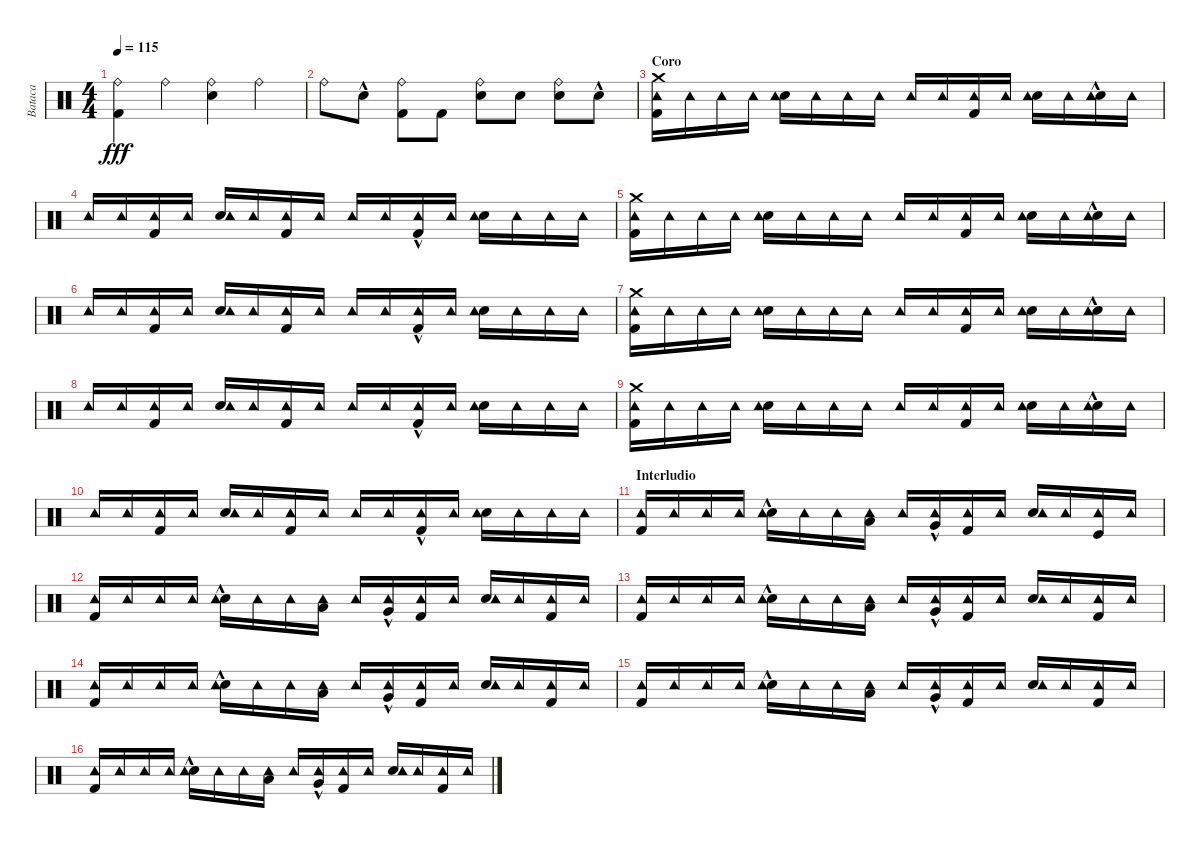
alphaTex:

\track ("Bataca" "Bataca") {instrument percussion}
\staff {score}
\articulation defaults
\ts (4 4)
\tempo 115
\clef neutral
\ks c
("Kick (hit) 2" "Ride (bell)").4{dy fff} "Ride (bell)".4 ("Snare (hit) 2" "Ride (bell)").4 "Ride (bell)".4 |
"Ride (bell)".8 "Snare (hit) 2"{hac}.8 ("Kick (hit) 2" "Ride (bell)").8 "Kick (hit) 2".8 ("Snare (hit) 2" "Ride (bell)").8 "Snare (hit) 2".8 ("Snare (hit) 2" "Ride (bell)").8 "Snare (hit) 2"{hac}.8 |
\section ("" "Coro")
("Kick (hit) 2" "Tambourine (hit)" "Crash medium (hit)").16 "Tambourine (hit)".16 "Tambourine (hit)".16 "Tambourine (hit)".16 ("Snare (hit) 2" "Tambourine (hit)").16 "Tambourine (hit)".16 "Tambourine (hit)".16 "Tambourine (hit)".16 "Tambourine (hit)".16 "Tambourine (hit)".16 ("Kick (hit) 2" "Tambourine (hit)").16 "Tambourine (hit)".16 ("Snare (hit) 2" "Tambourine (hit)").16 "Tambourine (hit)".16 ("Snare (hit) 2"{hac} "Tambourine (hit)").16 "Tambourine (hit)".16 |
"Tambourine (hit)".16 "Tambourine (hit)".16 ("Kick (hit) 2" "Tambourine (hit)").16 "Tambourine (hit)".16 ("Snare (hit) 2" "Tambourine (hit)").16 "Tambourine (hit)".16 ("Kick (hit) 2" "Tambourine (hit)").16 "Tambourine (hit)".16 "Tambourine (hit)".16 "Tambourine (hit)".16 ("Kick (hit) 2"{hac} "Tambourine (hit)").16 "Tambourine (hit)".16 ("Snare (hit) 2" "Tambourine (hit)").16 "Tambourine (hit)".16 "Tambourine (hit)".16 "Tambourine (hit)".16 |
("Kick (hit) 2" "Tambourine (hit)" "Crash medium (hit)").16 "Tambourine (hit)".16 "Tambourine (hit)".16 "Tambourine (hit)".16 ("Snare (hit) 2" "Tambourine (hit)").16 "Tambourine (hit)".16 "Tambourine (hit)".16 "Tambourine (hit)".16 "Tambourine (hit)".16 "Tambourine (hit)".16 ("Kick (hit) 2" "Tambourine (hit)").16 "Tambourine (hit)".16 ("Snare (hit) 2" "Tambourine (hit)").16 "Tambourine (hit)".16 ("Snare (hit) 2"{hac} "Tambourine (hit)").16 "Tambourine (hit)".16 |
"Tambourine (hit)".16 "Tambourine (hit)".16 ("Kick (hit) 2" "Tambourine (hit)").16 "Tambourine (hit)".16 ("Snare (hit) 2" "Tambourine (hit)").16 "Tambourine (hit)".16 ("Kick (hit) 2" "Tambourine (hit)").16 "Tambourine (hit)".16 "Tambourine (hit)".16 "Tambourine (hit)".16 ("Kick (hit) 2"{hac} "Tambourine (hit)").16 "Tambourine (hit)".16 ("Snare (hit) 2" "Tambourine (hit)").16 "Tambourine (hit)".16 "Tambourine (hit)".16 "Tambourine (hit)".16 |
("Kick (hit) 2" "Tambourine (hit)" "Crash medium (hit)").16 "Tambourine (hit)".16 "Tambourine (hit)".16 "Tambourine (hit)".16 ("Snare (hit) 2" "Tambourine (hit)").16 "Tambourine (hit)".16 "Tambourine (hit)".16 "Tambourine (hit)".16 "Tambourine (hit)".16 "Tambourine (hit)".16 ("Kick (hit) 2" "Tambourine (hit)").16 "Tambourine (hit)".16 ("Snare (hit) 2" "Tambourine (hit)").16 "Tambourine (hit)".16 ("Snare (hit) 2"{hac} "Tambourine (hit)").16 "Tambourine (hit)".16 |
"Tambourine (hit)".16 "Tambourine (hit)".16 ("Kick (hit) 2" "Tambourine (hit)").16 "Tambourine (hit)".16 ("Snare (hit) 2" "Tambourine (hit)").16 "Tambourine (hit)".16 ("Kick (hit) 2" "Tambourine (hit)").16 "Tambourine (hit)".16 "Tambourine (hit)".16 "Tambourine (hit)".16 ("Kick (hit) 2"{hac} "Tambourine (hit)").16 "Tambourine (hit)".16 ("Snare (hit) 2" "Tambourine (hit)").16 "Tambourine (hit)".16 "Tambourine (hit)".16 "Tambourine (hit)".16 |
("Kick (hit) 2" "Tambourine (hit)" "Crash medium (hit)").16 "Tambourine (hit)".16 "Tambourine (hit)".16 "Tambourine (hit)".16 ("Snare (hit) 2" "Tambourine (hit)").16 "Tambourine (hit)".16 "Tambourine (hit)".16 "Tambourine (hit)".16 "Tambourine (hit)".16 "Tambourine (hit)".16 ("Kick (hit) 2" "Tambourine (hit)").16 "Tambourine (hit)".16 ("Snare (hit) 2" "Tambourine (hit)").16 "Tambourine (hit)".16 ("Snare (hit) 2"{hac} "Tambourine (hit)").16 "Tambourine (hit)".16 |
"Tambourine (hit)".16 "Tambourine (hit)".16 ("Kick (hit) 2" "Tambourine (hit)").16 "Tambourine (hit)".16 ("Snare (hit) 2" "Tambourine (hit)").16 "Tambourine (hit)".16 ("Kick (hit) 2" "Tambourine (hit)").16 "Tambourine (hit)".16 "Tambourine (hit)".16 "Tambourine (hit)".16 ("Kick (hit) 2"{hac} "Tambourine (hit)").16 "Tambourine (hit)".16 ("Snare (hit) 2" "Tambourine (hit)").16 "Tambourine (hit)".16 "Tambourine (hit)".16 "Tambourine (hit)".16 |
\section ("" "Interludio")
("Kick (hit) 2" "Tambourine (hit)").16 "Tambourine (hit)".16 "Tambourine (hit)".16 "Tambourine (hit)".16 ("Snare (hit) 2"{hac} "Tambourine (hit)").16 "Tambourine (hit)".16 "Tambourine (hit)".16 ("Low Tom (hit)" "Tambourine (hit)").16 "Tambourine (hit)".16 ("Very Low Tom (hit)"{hac} "Tambourine (hit)").16 ("Kick (hit) 2" "Tambourine (hit)").16 "Tambourine (hit)".16 ("Snare (hit) 2" "Tambourine (hit)").16 "Tambourine (hit)".16 ("Kick (hit)" "Tambourine (hit)").16 "Tambourine (hit)".16 |
("Kick (hit) 2" "Tambourine (hit)").16 "Tambourine (hit)".16 "Tambourine (hit)".16 "Tambourine (hit)".16 ("Snare (hit) 2"{hac} "Tambourine (hit)").16 "Tambourine (hit)".16 "Tambourine (hit)".16 ("Low Tom (hit)" "Tambourine (hit)").16 "Tambourine (hit)".16 ("Very Low Tom (hit)"{hac} "Tambourine (hit)").16 ("Kick (hit) 2" "Tambourine (hit)").16 "Tambourine (hit)".16 ("Snare (hit) 2" "Tambourine (hit)").16 "Tambourine (hit)".16 ("Kick (hit) 2" "Tambourine (hit)").16 "Tambourine (hit)".16 |
("Kick (hit) 2" "Tambourine (hit)").16 "Tambourine (hit)".16 "Tambourine (hit)".16 "Tambourine (hit)".16 ("Snare (hit) 2"{hac} "Tambourine (hit)").16 "Tambourine (hit)".16 "Tambourine (hit)".16 ("Low Tom (hit)" "Tambourine (hit)").16 "Tambourine (hit)".16 ("Very Low Tom (hit)"{hac} "Tambourine (hit)").16 ("Kick (hit) 2" "Tambourine (hit)").16 "Tambourine (hit)".16 ("Snare (hit) 2" "Tambourine (hit)").16 "Tambourine (hit)".16 ("Kick (hit) 2" "Tambourine (hit)").16 "Tambourine (hit)".16 |
("Kick (hit) 2" "Tambourine (hit)").16 "Tambourine (hit)".16 "Tambourine (hit)".16 "Tambourine (hit)".16 ("Snare (hit) 2"{hac} "Tambourine (hit)").16 "Tambourine (hit)".16 "Tambourine (hit)".16 ("Low Tom (hit)" "Tambourine (hit)").16 "Tambourine (hit)".16 ("Very Low Tom (hit)"{hac} "Tambourine (hit)").16 ("Kick (hit) 2" "Tambourine (hit)").16 "Tambourine (hit)".16 ("Snare (hit) 2" "Tambourine (hit)").16 "Tambourine (hit)".16 ("Kick (hit) 2" "Tambourine (hit)").16 "Tambourine (hit)".16 |
("Kick (hit) 2" "Tambourine (hit)").16 "Tambourine (hit)".16 "Tambourine (hit)".16 "Tambourine (hit)".16 ("Snare (hit) 2"{hac} "Tambourine (hit)").16 "Tambourine (hit)".16 "Tambourine (hit)".16 ("Low Tom (hit)" "Tambourine (hit)").16 "Tambourine (hit)".16 ("Very Low Tom (hit)"{hac} "Tambourine (hit)").16 ("Kick (hit) 2" "Tambourine (hit)").16 "Tambourine (hit)".16 ("Snare (hit) 2" "Tambourine (hit)").16 "Tambourine (hit)".16 ("Kick (hit) 2" "Tambourine (hit)").16 "Tambourine (hit)".16 |
("Kick (hit) 2" "Tambourine (hit)").16 "Tambourine (hit)".16 "Tambourine (hit)".16 "Tambourine (hit)".16 ("Snare (hit) 2"{hac} "Tambourine (hit)").16 "Tambourine (hit)".16 "Tambourine (hit)".16 ("Low Tom (hit)" "Tambourine (hit)").16 "Tambourine (hit)".16 ("Very Low Tom (hit)"{hac} "Tambourine (hit)").16 ("Kick (hit) 2" "Tambourine (hit)").16 "Tambourine (hit)".16 ("Snare (hit) 2" "Tambourine (hit)").16 "Tambourine (hit)".16 ("Kick (hit) 2" "Tambourine (hit)").16 "Tambourine (hit)".16
